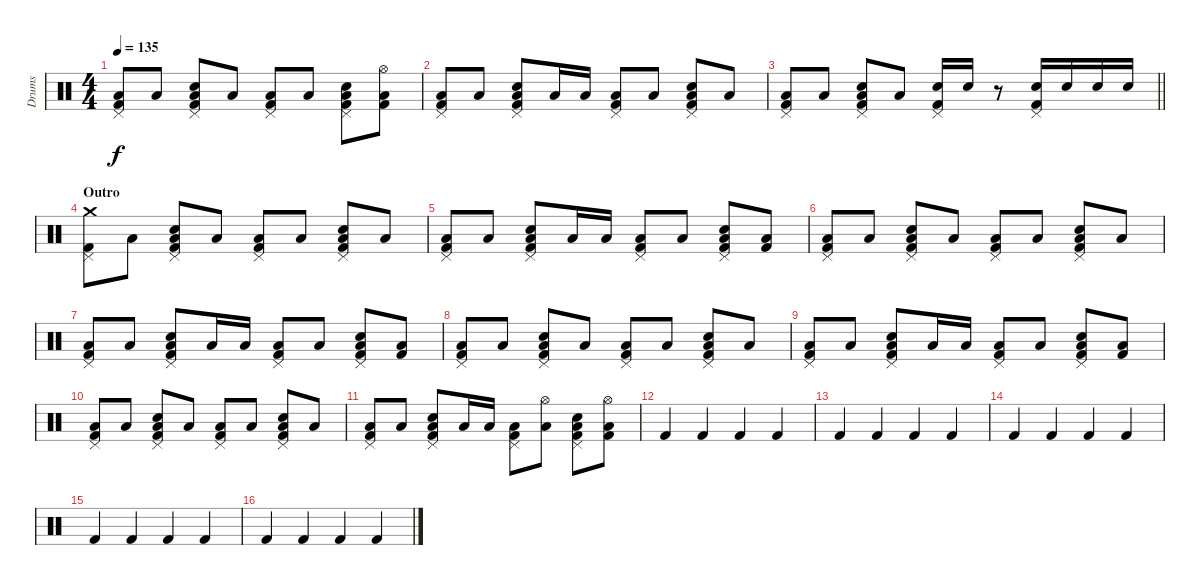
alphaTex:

\track ("Drums" "Drums") {instrument percussion}
\staff {score}
\articulation defaults
\ts (4 4)
\tempo 135
\clef neutral
\ks c
("Pedal Hi-Hat (hit)" "Low Floor Tom (hit)" "Kick (hit) 2").8{dy f} "Low Floor Tom (hit)".8 ("Pedal Hi-Hat (hit)" "Low Floor Tom (hit)" "Electric Snare (hit)" "Kick (hit) 2").8 "Low Floor Tom (hit)".8 ("Pedal Hi-Hat (hit)" "Low Floor Tom (hit)" "Kick (hit) 2").8 "Low Floor Tom (hit)".8 ("Pedal Hi-Hat (hit)" "Low Floor Tom (hit)" "Electric Snare (hit)" "Kick (hit) 2").8 ("Hi-Hat (open)" "Low Floor Tom (hit)" "Kick (hit) 2").8 |
("Pedal Hi-Hat (hit)" "Low Floor Tom (hit)" "Kick (hit) 2").8 "Low Floor Tom (hit)".8 ("Pedal Hi-Hat (hit)" "Low Floor Tom (hit)" "Electric Snare (hit)" "Kick (hit) 2").8 "Low Floor Tom (hit)".16 "Low Floor Tom (hit)".16 ("Pedal Hi-Hat (hit)" "Low Floor Tom (hit)" "Kick (hit) 2").8 "Low Floor Tom (hit)".8 ("Pedal Hi-Hat (hit)" "Low Floor Tom (hit)" "Electric Snare (hit)" "Kick (hit) 2").8 "Low Floor Tom (hit)".8 |
\barLineRight lightlight
("Pedal Hi-Hat (hit)" "Low Floor Tom (hit)" "Kick (hit) 2").8 "Low Floor Tom (hit)".8 ("Pedal Hi-Hat (hit)" "Low Floor Tom (hit)" "Electric Snare (hit)" "Kick (hit) 2").8 "Low Floor Tom (hit)".8 ("Pedal Hi-Hat (hit)" "Electric Snare (hit)" "Kick (hit) 2").16 "Electric Snare (hit)".16 r.8 ("Pedal Hi-Hat (hit)" "Electric Snare (hit)" "Kick (hit) 2").16 "Electric Snare (hit)".16 "Electric Snare (hit)".16 "Electric Snare (hit)".16 |
\section ("" "Outro")
("Crash medium (hit)" "Pedal Hi-Hat (hit)" "Kick (hit) 2").8 "Low Floor Tom (hit)".8 ("Pedal Hi-Hat (hit)" "Low Floor Tom (hit)" "Electric Snare (hit)" "Kick (hit) 2").8 "Low Floor Tom (hit)".8 ("Pedal Hi-Hat (hit)" "Low Floor Tom (hit)" "Kick (hit) 2").8 "Low Floor Tom (hit)".8 ("Pedal Hi-Hat (hit)" "Low Floor Tom (hit)" "Electric Snare (hit)" "Kick (hit) 2").8 "Low Floor Tom (hit)".8 |
("Pedal Hi-Hat (hit)" "Low Floor Tom (hit)" "Kick (hit) 2").8 "Low Floor Tom (hit)".8 ("Pedal Hi-Hat (hit)" "Low Floor Tom (hit)" "Electric Snare (hit)" "Kick (hit) 2").8 "Low Floor Tom (hit)".16 "Low Floor Tom (hit)".16 ("Pedal Hi-Hat (hit)" "Low Floor Tom (hit)" "Kick (hit) 2").8 "Low Floor Tom (hit)".8 ("Pedal Hi-Hat (hit)" "Low Floor Tom (hit)" "Electric Snare (hit)" "Kick (hit) 2").8 ("Low Floor Tom (hit)" "Kick (hit) 2").8 |
("Pedal Hi-Hat (hit)" "Low Floor Tom (hit)" "Kick (hit) 2").8 "Low Floor Tom (hit)".8 ("Pedal Hi-Hat (hit)" "Low Floor Tom (hit)" "Electric Snare (hit)" "Kick (hit) 2").8 "Low Floor Tom (hit)".8 ("Pedal Hi-Hat (hit)" "Low Floor Tom (hit)" "Kick (hit) 2").8 "Low Floor Tom (hit)".8 ("Pedal Hi-Hat (hit)" "Low Floor Tom (hit)" "Electric Snare (hit)" "Kick (hit) 2").8 "Low Floor Tom (hit)".8 |
("Pedal Hi-Hat (hit)" "Low Floor Tom (hit)" "Kick (hit) 2").8 "Low Floor Tom (hit)".8 ("Pedal Hi-Hat (hit)" "Low Floor Tom (hit)" "Electric Snare (hit)" "Kick (hit) 2").8 "Low Floor Tom (hit)".16 "Low Floor Tom (hit)".16 ("Pedal Hi-Hat (hit)" "Low Floor Tom (hit)" "Kick (hit) 2").8 "Low Floor Tom (hit)".8 ("Pedal Hi-Hat (hit)" "Low Floor Tom (hit)" "Electric Snare (hit)" "Kick (hit) 2").8 ("Low Floor Tom (hit)" "Kick (hit) 2").8 |
("Pedal Hi-Hat (hit)" "Low Floor Tom (hit)" "Kick (hit) 2").8 "Low Floor Tom (hit)".8 ("Pedal Hi-Hat (hit)" "Low Floor Tom (hit)" "Electric Snare (hit)" "Kick (hit) 2").8 "Low Floor Tom (hit)".8 ("Pedal Hi-Hat (hit)" "Low Floor Tom (hit)" "Kick (hit) 2").8 "Low Floor Tom (hit)".8 ("Pedal Hi-Hat (hit)" "Low Floor Tom (hit)" "Electric Snare (hit)" "Kick (hit) 2").8 "Low Floor Tom (hit)".8 |
("Pedal Hi-Hat (hit)" "Low Floor Tom (hit)" "Kick (hit) 2").8 "Low Floor Tom (hit)".8 ("Pedal Hi-Hat (hit)" "Low Floor Tom (hit)" "Electric Snare (hit)" "Kick (hit) 2").8 "Low Floor Tom (hit)".16 "Low Floor Tom (hit)".16 ("Pedal Hi-Hat (hit)" "Low Floor Tom (hit)" "Kick (hit) 2").8 "Low Floor Tom (hit)".8 ("Pedal Hi-Hat (hit)" "Low Floor Tom (hit)" "Electric Snare (hit)" "Kick (hit) 2").8 ("Low Floor Tom (hit)" "Kick (hit) 2").8 |
("Pedal Hi-Hat (hit)" "Low Floor Tom (hit)" "Kick (hit) 2").8 "Low Floor Tom (hit)".8 ("Pedal Hi-Hat (hit)" "Low Floor Tom (hit)" "Electric Snare (hit)" "Kick (hit) 2").8 "Low Floor Tom (hit)".8 ("Pedal Hi-Hat (hit)" "Low Floor Tom (hit)" "Kick (hit) 2").8 "Low Floor Tom (hit)".8 ("Pedal Hi-Hat (hit)" "Low Floor Tom (hit)" "Electric Snare (hit)" "Kick (hit) 2").8 "Low Floor Tom (hit)".8 |
("Pedal Hi-Hat (hit)" "Low Floor Tom (hit)" "Kick (hit) 2").8 "Low Floor Tom (hit)".8 ("Pedal Hi-Hat (hit)" "Low Floor Tom (hit)" "Electric Snare (hit)" "Kick (hit) 2").8 "Low Floor Tom (hit)".16 "Low Floor Tom (hit)".16 ("Pedal Hi-Hat (hit)" "Low Floor Tom (hit)" "Kick (hit) 2").8 ("Hi-Hat (open)" "Low Floor Tom (hit)").8 ("Pedal Hi-Hat (hit)" "Low Floor Tom (hit)" "Electric Snare (hit)" "Kick (hit) 2").8 ("Hi-Hat (open)" "Low Floor Tom (hit)" "Kick (hit) 2").8 |
"Kick (hit) 2".4 "Kick (hit) 2".4 "Kick (hit) 2".4 "Kick (hit) 2".4 |
"Kick (hit) 2".4 "Kick (hit) 2".4 "Kick (hit) 2".4 "Kick (hit) 2".4 |
"Kick (hit) 2".4 "Kick (hit) 2".4 "Kick (hit) 2".4 "Kick (hit) 2".4 |
"Kick (hit) 2".4 "Kick (hit) 2".4 "Kick (hit) 2".4 "Kick (hit) 2".4 |
"Kick (hit) 2".4 "Kick (hit) 2".4 "Kick (hit) 2".4 "Kick (hit) 2".4
